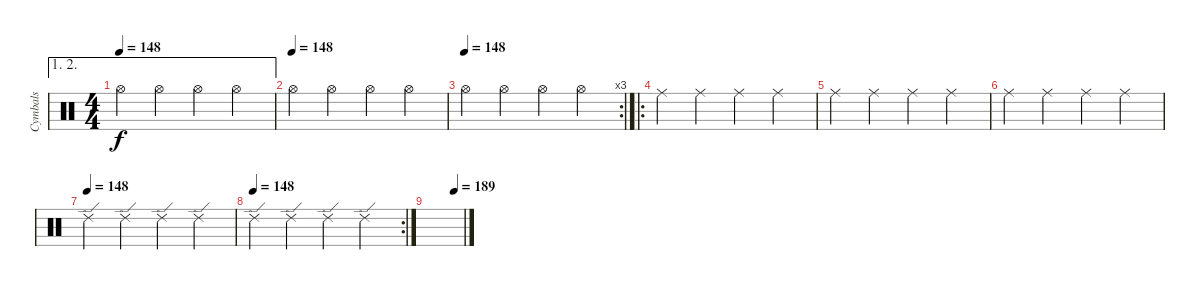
\track ("Cymbals" "Cymbals") {instrument percussion}
\staff {score}
\articulation defaults
\ae (1 2)
\ts (4 4)
\tempo 148
\clef neutral
\ks c "Hi-Hat (open)".4{dy f} "Hi-Hat (open)".4 "Hi-Hat (open)".4 "Hi-Hat (open)".4
|
\tempo (148)
"Hi-Hat (open)".4 "Hi-Hat (open)".4 "Hi-Hat (open)".4 "Hi-Hat (open)".4 |
\rc 3
\tempo (148)
"Hi-Hat (open)".4 "Hi-Hat (open)".4 "Hi-Hat (open)".4 "Hi-Hat (open)".4 |
\ro "Ride (middle)".4 "Ride (middle)".4 "Ride (middle)".4 "Ride (middle)".4
|
"Ride (middle)".4 "Ride (middle)".4 "Ride (middle)".4 "Ride (middle)".4 |
"Ride (middle)".4 "Ride (middle)".4 "Ride (middle)".4 "Ride (middle)".4 |
\tempo (148)
"Ride (edge) 2".4 "Ride (edge) 2".4 "Ride (edge) 2".4 "Ride (edge) 2".4 |
\rc 2
\tempo (148)
"Ride (edge) 2".4 "Ride (edge) 2".4 "Ride (edge) 2".4 "Ride (edge) 2".4 |
\tempo (189 0.75)
